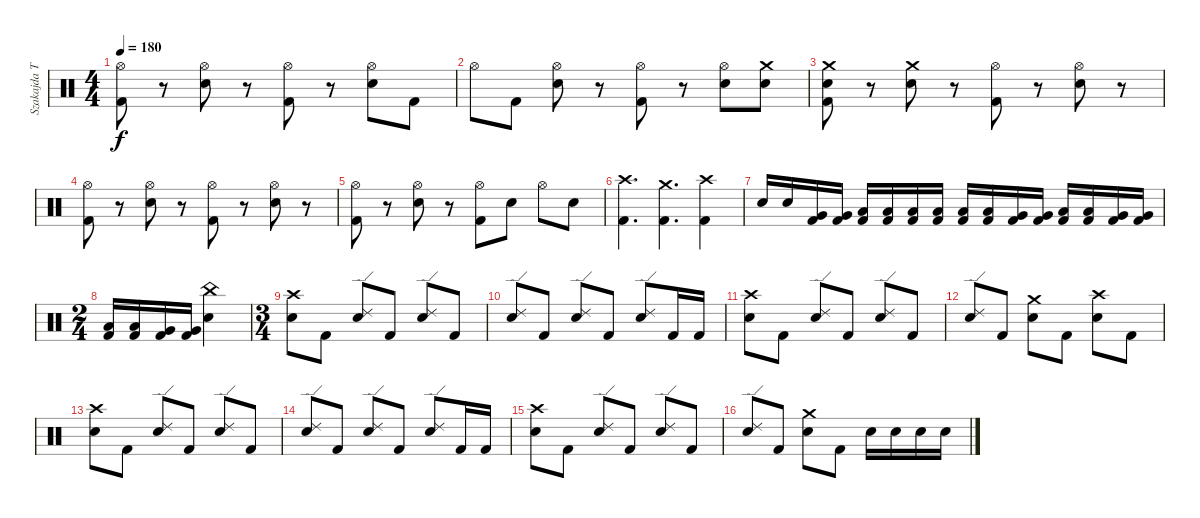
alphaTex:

\track ("Szakajda Tibi" "Szakajda T") {instrument percussion}
\staff {score}
\articulation defaults
\ts (4 4)
\tempo 180
\clef neutral
\ks c
("Hi-Hat (open)" "Kick (hit) 2").8{dy f} r.8 ("Hi-Hat (open)" "Electric Snare (hit)").8 r.8 ("Hi-Hat (open)" "Kick (hit) 2").8 r.8 ("Hi-Hat (open)" "Electric Snare (hit)").8 "Kick (hit) 2".8 |
"Hi-Hat (open)".8 "Kick (hit) 2".8 ("Hi-Hat (open)" "Electric Snare (hit)").8 r.8 ("Hi-Hat (open)" "Kick (hit) 2").8 r.8 ("Hi-Hat (open)" "Electric Snare (hit)").8 ("Crash medium (hit)" "Electric Snare (hit)").8 |
("Crash medium (hit)" "Electric Snare (hit)" "Kick (hit) 2").8 r.8 ("Crash medium (hit)" "Electric Snare (hit)").8 r.8 ("Hi-Hat (open)" "Kick (hit) 2").8 r.8 ("Hi-Hat (open)" "Electric Snare (hit)").8 r.8 |
("Hi-Hat (open)" "Kick (hit) 2").8 r.8 ("Hi-Hat (open)" "Electric Snare (hit)").8 r.8 ("Hi-Hat (open)" "Kick (hit) 2").8 r.8 ("Hi-Hat (open)" "Electric Snare (hit)").8 r.8 |
("Hi-Hat (open)" "Kick (hit) 2").8 r.8 ("Hi-Hat (open)" "Electric Snare (hit)").8 r.8 ("Hi-Hat (open)" "Kick (hit) 2").8 "Electric Snare (hit)".8 "Hi-Hat (open)".8 "Electric Snare (hit)".8 |
("Crash high (hit)" "Kick (hit) 2").4{d} ("Crash medium (hit)" "Kick (hit) 2").4{d} ("Crash high (hit)" "Kick (hit) 2").4 |
"Electric Snare (hit)".16 "Electric Snare (hit)".16 ("Very Low Tom (hit)" "Kick (hit) 2").16 ("Very Low Tom (hit)" "Kick (hit) 2").16 ("Low Tom (hit)" "Kick (hit) 2").16 ("Low Tom (hit)" "Kick (hit) 2").16 ("Low Floor Tom (hit)" "Kick (hit) 2").16 ("Low Floor Tom (hit)" "Kick (hit) 2").16 ("Low Tom (hit)" "Kick (hit) 2").16 ("Low Tom (hit)" "Kick (hit) 2").16 ("Very Low Tom (hit)" "Kick (hit) 2").16 ("Very Low Tom (hit)" "Kick (hit) 2").16 ("Low Floor Tom (hit)" "Kick (hit) 2").16 ("Low Floor Tom (hit)" "Kick (hit) 2").16 ("Very Low Tom (hit)" "Kick (hit) 2").16 ("Very Low Tom (hit)" "Kick (hit) 2").16 |
\ts (2 4)
("Low Floor Tom (hit)" "Kick (hit) 2").16 ("Low Floor Tom (hit)" "Kick (hit) 2").16 ("Very Low Tom (hit)" "Kick (hit) 2").16 ("Very Low Tom (hit)" "Kick (hit) 2").16 ("China (hit)" "Electric Snare (hit)").4 |
\ts (3 4)
("Crash high (hit)" "Electric Snare (hit)").8 "Kick (hit) 2".8 ("Ride (edge) 2" "Electric Snare (hit)").8 "Kick (hit) 2".8 ("Ride (edge) 2" "Electric Snare (hit)").8 "Kick (hit) 2".8 |
("Ride (edge) 2" "Electric Snare (hit)").8 "Kick (hit) 2".8 ("Ride (edge) 2" "Electric Snare (hit)").8 "Kick (hit) 2".8 ("Ride (edge) 2" "Electric Snare (hit)").8 "Kick (hit) 2".16 "Kick (hit) 2".16 |
("Crash high (hit)" "Electric Snare (hit)").8 "Kick (hit) 2".8 ("Ride (edge) 2" "Electric Snare (hit)").8 "Kick (hit) 2".8 ("Ride (edge) 2" "Electric Snare (hit)").8 "Kick (hit) 2".8 |
("Ride (edge) 2" "Electric Snare (hit)").8 "Kick (hit) 2".8 ("Crash medium (hit)" "Electric Snare (hit)").8 "Kick (hit) 2".8 ("Crash high (hit)" "Electric Snare (hit)").8 "Kick (hit) 2".8 |
("Crash high (hit)" "Electric Snare (hit)").8 "Kick (hit) 2".8 ("Ride (edge) 2" "Electric Snare (hit)").8 "Kick (hit) 2".8 ("Ride (edge) 2" "Electric Snare (hit)").8 "Kick (hit) 2".8 |
("Ride (edge) 2" "Electric Snare (hit)").8 "Kick (hit) 2".8 ("Ride (edge) 2" "Electric Snare (hit)").8 "Kick (hit) 2".8 ("Ride (edge) 2" "Electric Snare (hit)").8 "Kick (hit) 2".16 "Kick (hit) 2".16 |
("Crash high (hit)" "Electric Snare (hit)").8 "Kick (hit) 2".8 ("Ride (edge) 2" "Electric Snare (hit)").8 "Kick (hit) 2".8 ("Ride (edge) 2" "Electric Snare (hit)").8 "Kick (hit) 2".8 |
("Ride (edge) 2" "Electric Snare (hit)").8 "Kick (hit) 2".8 ("Crash medium (hit)" "Electric Snare (hit)").8 "Kick (hit) 2".8 "Electric Snare (hit)".16 "Electric Snare (hit)".16 "Electric Snare (hit)".16 "Electric Snare (hit)".16
